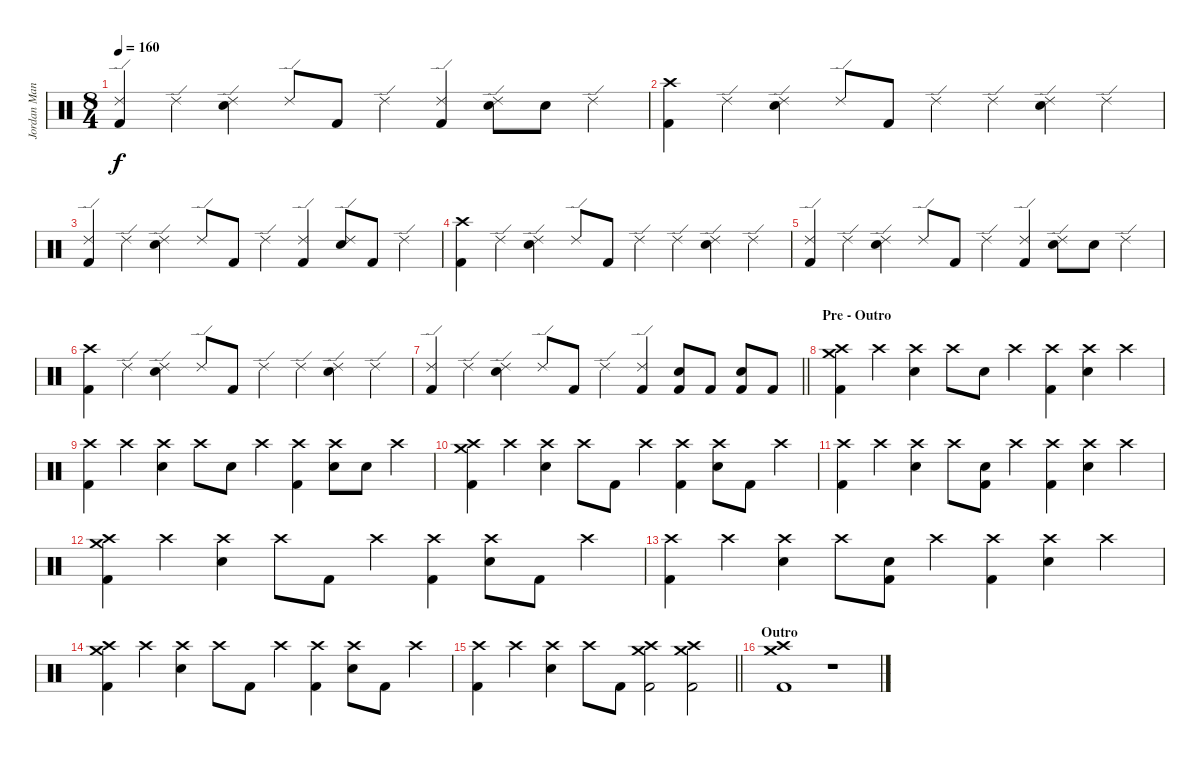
\track ("Jordan Mancino" "Jordan Man") {instrument percussion}
\staff {score}
\articulation defaults
\ts (8 4)
\tempo 160
\clef neutral
\ks c
("Ride (edge) 2" "Kick (hit) 2").4{dy f} "Ride (edge) 2".4 ("Ride (edge) 2" "Snare (hit) 2").4 "Ride (edge) 2".8 "Kick (hit) 2".8 "Ride (edge) 2".4 ("Ride (edge) 2" "Kick (hit) 2").4 ("Ride (edge) 2" "Snare (hit) 2").8 "Snare (hit) 2".8 "Ride (edge) 2".4 |
("Crash high (hit)" "Kick (hit) 2").4 "Ride (edge) 2".4 ("Ride (edge) 2" "Snare (hit) 2").4 "Ride (edge) 2".8 "Kick (hit) 2".8 "Ride (edge) 2".4 "Ride (edge) 2".4 ("Ride (edge) 2" "Snare (hit) 2").4 "Ride (edge) 2".4 |
("Ride (edge) 2" "Kick (hit) 2").4 "Ride (edge) 2".4 ("Ride (edge) 2" "Snare (hit) 2").4 "Ride (edge) 2".8 "Kick (hit) 2".8 "Ride (edge) 2".4 ("Ride (edge) 2" "Kick (hit) 2").4 ("Ride (edge) 2" "Snare (hit) 2").8 "Kick (hit) 2".8 "Ride (edge) 2".4 |
("Crash high (hit)" "Kick (hit) 2").4 "Ride (edge) 2".4 ("Ride (edge) 2" "Snare (hit) 2").4 "Ride (edge) 2".8 "Kick (hit) 2".8 "Ride (edge) 2".4 "Ride (edge) 2".4 ("Ride (edge) 2" "Snare (hit) 2").4 "Ride (edge) 2".4 |
("Ride (edge) 2" "Kick (hit) 2").4 "Ride (edge) 2".4 ("Ride (edge) 2" "Snare (hit) 2").4 "Ride (edge) 2".8 "Kick (hit) 2".8 "Ride (edge) 2".4 ("Ride (edge) 2" "Kick (hit) 2").4 ("Ride (edge) 2" "Snare (hit) 2").8 "Snare (hit) 2".8 "Ride (edge) 2".4 |
("Crash high (hit)" "Kick (hit) 2").4 "Ride (edge) 2".4 ("Ride (edge) 2" "Snare (hit) 2").4 "Ride (edge) 2".8 "Kick (hit) 2".8 "Ride (edge) 2".4 "Ride (edge) 2".4 ("Ride (edge) 2" "Snare (hit) 2").4 "Ride (edge) 2".4 |
\barLineRight lightlight
("Ride (edge) 2" "Kick (hit) 2").4 "Ride (edge) 2".4 ("Ride (edge) 2" "Snare (hit) 2").4 "Ride (edge) 2".8 "Kick (hit) 2".8 "Ride (edge) 2".4 ("Ride (edge) 2" "Kick (hit) 2").4 ("Electric Snare (hit)" "Kick (hit) 2").8 "Kick (hit) 2".8 ("Electric Snare (hit)" "Kick (hit) 2").8 "Kick (hit) 2".8 |
\section ("" "Pre - Outro")
("Crash high (hit)" "Crash medium (hit)" "Kick (hit) 2").4 "Crash high (hit)".4 ("Crash high (hit)" "Electric Snare (hit)").4 "Crash high (hit)".8 "Electric Snare (hit)".8 "Crash high (hit)".4 ("Crash high (hit)" "Kick (hit) 2").4 ("Crash high (hit)" "Electric Snare (hit)").4 "Crash high (hit)".4 |
("Crash high (hit)" "Kick (hit) 2").4 "Crash high (hit)".4 ("Crash high (hit)" "Electric Snare (hit)").4 "Crash high (hit)".8 "Electric Snare (hit)".8 "Crash high (hit)".4 ("Crash high (hit)" "Kick (hit) 2").4 ("Crash high (hit)" "Electric Snare (hit)").8 "Electric Snare (hit)".8 "Crash high (hit)".4 |
("Crash high (hit)" "Crash medium (hit)" "Kick (hit) 2").4 "Crash high (hit)".4 ("Crash high (hit)" "Electric Snare (hit)").4 "Crash high (hit)".8 "Kick (hit) 2".8 "Crash high (hit)".4 ("Crash high (hit)" "Kick (hit) 2").4 ("Crash high (hit)" "Electric Snare (hit)").8 "Kick (hit) 2".8 "Crash high (hit)".4 |
("Crash high (hit)" "Kick (hit) 2").4 "Crash high (hit)".4 ("Crash high (hit)" "Electric Snare (hit)").4 "Crash high (hit)".8 ("Electric Snare (hit)" "Kick (hit) 2").8 "Crash high (hit)".4 ("Crash high (hit)" "Kick (hit) 2").4 ("Crash high (hit)" "Electric Snare (hit)").4 "Crash high (hit)".4 |
("Crash high (hit)" "Crash medium (hit)" "Kick (hit) 2").4 "Crash high (hit)".4 ("Crash high (hit)" "Electric Snare (hit)").4 "Crash high (hit)".8 "Kick (hit) 2".8 "Crash high (hit)".4 ("Crash high (hit)" "Kick (hit) 2").4 ("Crash high (hit)" "Electric Snare (hit)").8 "Kick (hit) 2".8 "Crash high (hit)".4 |
("Crash high (hit)" "Kick (hit) 2").4 "Crash high (hit)".4 ("Crash high (hit)" "Electric Snare (hit)").4 "Crash high (hit)".8 ("Electric Snare (hit)" "Kick (hit) 2").8 "Crash high (hit)".4 ("Crash high (hit)" "Kick (hit) 2").4 ("Crash high (hit)" "Electric Snare (hit)").4 "Crash high (hit)".4 |
("Crash high (hit)" "Crash medium (hit)" "Kick (hit) 2").4 "Crash high (hit)".4 ("Crash high (hit)" "Electric Snare (hit)").4 "Crash high (hit)".8 "Kick (hit) 2".8 "Crash high (hit)".4 ("Crash high (hit)" "Kick (hit) 2").4 ("Crash high (hit)" "Electric Snare (hit)").8 "Kick (hit) 2".8 "Crash high (hit)".4 |
\barLineRight lightlight
("Crash high (hit)" "Kick (hit) 2").4 "Crash high (hit)".4 ("Crash high (hit)" "Electric Snare (hit)").4 "Crash high (hit)".8 "Kick (hit) 2".8 ("Crash high (hit)" "Crash medium (hit)" "Kick (hit) 2").2 ("Crash high (hit)" "Crash medium (hit)" "Kick (hit) 2").2 |
\section ("" "Outro")
("Crash high (hit)" "Crash medium (hit)" "Kick (hit) 2").1 r.1
